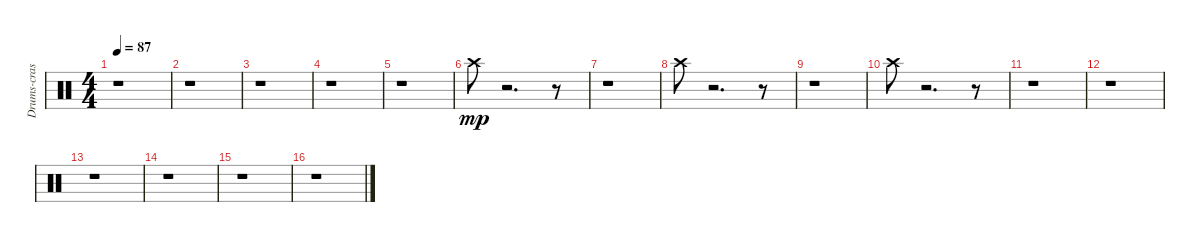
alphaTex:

\track ("Drums-crash cymbal 1" "Drums-cras") {instrument percussion}
\staff {score}
\articulation defaults
\ts (4 4)
\tempo 87
\clef neutral
\ks c
r.1{dy mp} |
r.1 |
r.1 |
r.1 |
r.1 |
"Crash high (hit)".8 r.2{d} r.8 |
r.1 |
"Crash high (hit)".8 r.2{d} r.8 |
r.1 |
"Crash high (hit)".8 r.2{d} r.8 |
r.1 |
r.1 |
r.1 |
r.1 |
r.1 |
r.1
